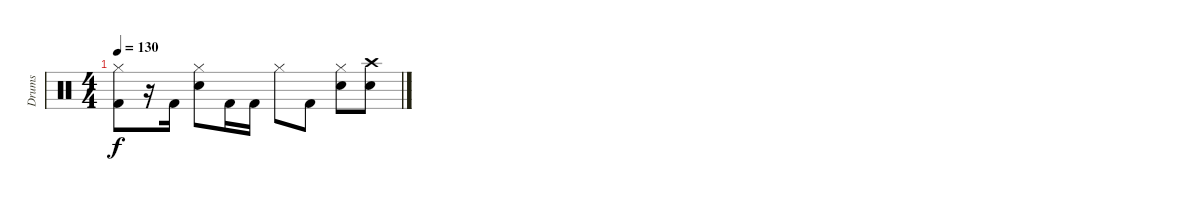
\track ("Drums" "Drums") {instrument percussion}
\staff {score}
\articulation defaults
\ts (4 4)
\tempo 130
\clef neutral
\ks c
("Hi-Hat (closed)" "Kick (hit) 2").8{dy f} r.16 "Kick (hit) 2".16 ("Hi-Hat (closed)" "Electric Snare (hit)").8 "Kick (hit) 2".16 "Kick (hit) 2".16 "Hi-Hat (closed)".8 "Kick (hit) 2".8 ("Hi-Hat (closed)" "Electric Snare (hit)").8 ("Crash high (hit)" "Electric Snare (hit)").8
